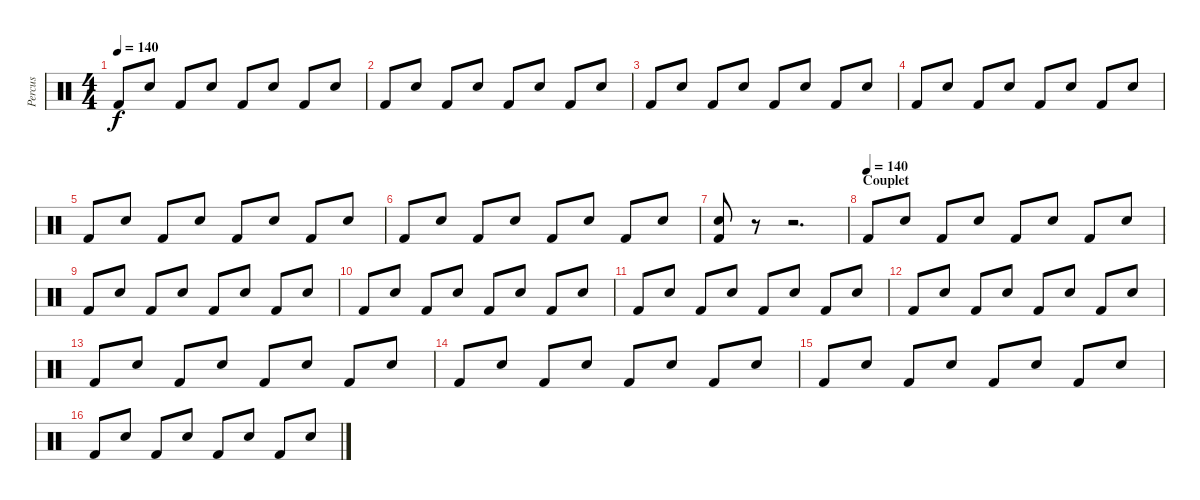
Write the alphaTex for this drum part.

\track ("Percus" "Percus") {instrument percussion}
\staff {score}
\articulation defaults
\ts (4 4)
\tempo 140
\clef neutral
\ks c "Kick (hit) 2".8{dy f} "Snare (hit) 2".8 "Kick (hit) 2".8 "Snare (hit) 2".8 "Kick (hit) 2".8 "Snare (hit) 2".8 "Kick (hit) 2".8 "Snare (hit) 2".8
|
"Kick (hit) 2".8 "Snare (hit) 2".8 "Kick (hit) 2".8 "Snare (hit) 2".8 "Kick (hit) 2".8 "Snare (hit) 2".8 "Kick (hit) 2".8 "Snare (hit) 2".8 |
"Kick (hit) 2".8 "Snare (hit) 2".8 "Kick (hit) 2".8 "Snare (hit) 2".8 "Kick (hit) 2".8 "Snare (hit) 2".8 "Kick (hit) 2".8 "Snare (hit) 2".8 |
"Kick (hit) 2".8 "Snare (hit) 2".8 "Kick (hit) 2".8 "Snare (hit) 2".8 "Kick (hit) 2".8 "Snare (hit) 2".8 "Kick (hit) 2".8 "Snare (hit) 2".8 |
"Kick (hit) 2".8 "Snare (hit) 2".8 "Kick (hit) 2".8 "Snare (hit) 2".8 "Kick (hit) 2".8 "Snare (hit) 2".8 "Kick (hit) 2".8 "Snare (hit) 2".8 |
"Kick (hit) 2".8 "Snare (hit) 2".8 "Kick (hit) 2".8 "Snare (hit) 2".8 "Kick (hit) 2".8 "Snare (hit) 2".8 "Kick (hit) 2".8 "Snare (hit) 2".8 |
("Snare (hit) 2" "Kick (hit) 2").8 r.8 r.2{d} |
\section ("" "Couplet")
\tempo (140)
"Kick (hit) 2".8 "Snare (hit) 2".8 "Kick (hit) 2".8 "Snare (hit) 2".8 "Kick (hit) 2".8 "Snare (hit) 2".8 "Kick (hit) 2".8 "Snare (hit) 2".8 |
"Kick (hit) 2".8 "Snare (hit) 2".8 "Kick (hit) 2".8 "Snare (hit) 2".8 "Kick (hit) 2".8 "Snare (hit) 2".8 "Kick (hit) 2".8 "Snare (hit) 2".8 |
"Kick (hit) 2".8 "Snare (hit) 2".8 "Kick (hit) 2".8 "Snare (hit) 2".8 "Kick (hit) 2".8 "Snare (hit) 2".8 "Kick (hit) 2".8 "Snare (hit) 2".8 |
"Kick (hit) 2".8 "Snare (hit) 2".8 "Kick (hit) 2".8 "Snare (hit) 2".8 "Kick (hit) 2".8 "Snare (hit) 2".8 "Kick (hit) 2".8 "Snare (hit) 2".8 |
"Kick (hit) 2".8 "Snare (hit) 2".8 "Kick (hit) 2".8 "Snare (hit) 2".8 "Kick (hit) 2".8 "Snare (hit) 2".8 "Kick (hit) 2".8 "Snare (hit) 2".8 |
"Kick (hit) 2".8 "Snare (hit) 2".8 "Kick (hit) 2".8 "Snare (hit) 2".8 "Kick (hit) 2".8 "Snare (hit) 2".8 "Kick (hit) 2".8 "Snare (hit) 2".8 |
"Kick (hit) 2".8 "Snare (hit) 2".8 "Kick (hit) 2".8 "Snare (hit) 2".8 "Kick (hit) 2".8 "Snare (hit) 2".8 "Kick (hit) 2".8 "Snare (hit) 2".8 |
"Kick (hit) 2".8 "Snare (hit) 2".8 "Kick (hit) 2".8 "Snare (hit) 2".8 "Kick (hit) 2".8 "Snare (hit) 2".8 "Kick (hit) 2".8 "Snare (hit) 2".8 |
"Kick (hit) 2".8 "Snare (hit) 2".8 "Kick (hit) 2".8 "Snare (hit) 2".8 "Kick (hit) 2".8 "Snare (hit) 2".8 "Kick (hit) 2".8 "Snare (hit) 2".8
